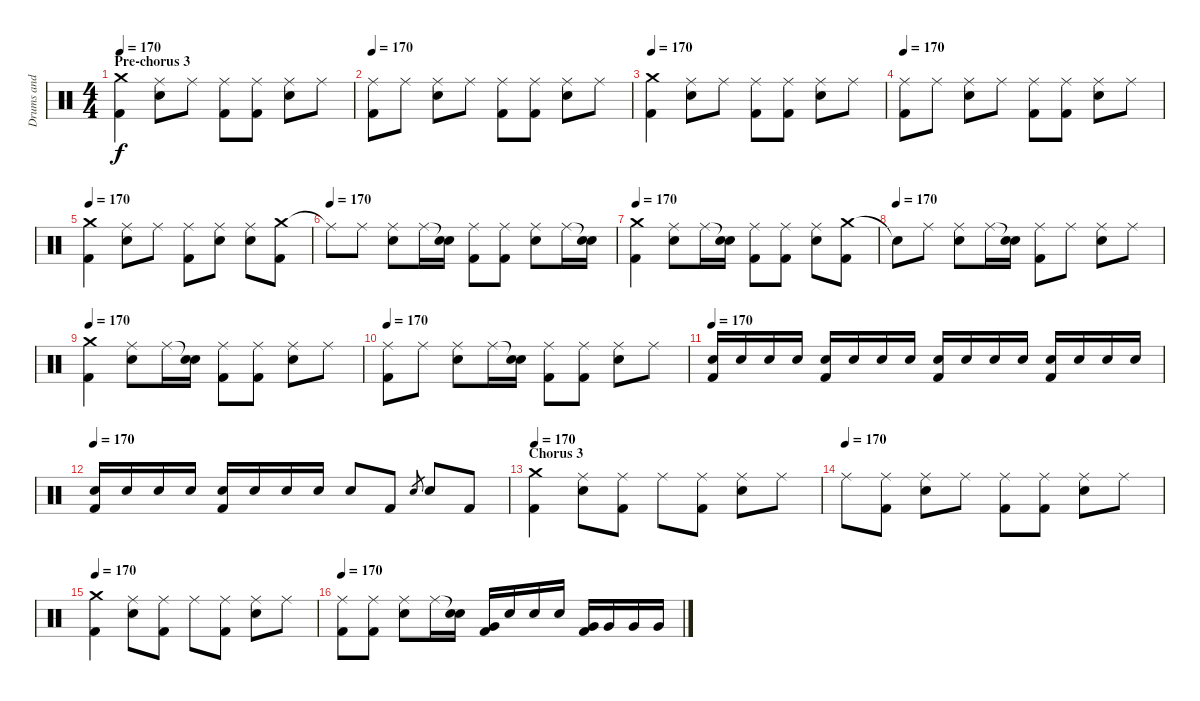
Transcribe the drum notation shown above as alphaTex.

\track ("Drums and Percussion" "Drums and ") {instrument percussion}
\staff {score}
\articulation defaults
\ts (4 4)
\section ("" "Pre-chorus 3")
\tempo 170
\clef neutral
\ks c
("Crash medium (hit)" "Kick (hit) 2").4{dy f} ("Ride (middle)" "Electric Snare (hit)").8 "Ride (middle)".8 ("Ride (middle)" "Kick (hit) 2").8 ("Ride (middle)" "Kick (hit) 2").8 ("Ride (middle)" "Electric Snare (hit)").8 "Ride (middle)".8 |
\tempo 170
("Ride (middle)" "Kick (hit) 2").8 "Ride (middle)".8 ("Ride (middle)" "Electric Snare (hit)").8 "Ride (middle)".8 ("Ride (middle)" "Kick (hit) 2").8 ("Ride (middle)" "Kick (hit) 2").8 ("Ride (middle)" "Electric Snare (hit)").8 "Ride (middle)".8 |
\tempo 170
("Crash medium (hit)" "Kick (hit) 2").4 ("Ride (middle)" "Electric Snare (hit)").8 "Ride (middle)".8 ("Ride (middle)" "Kick (hit) 2").8 ("Ride (middle)" "Kick (hit) 2").8 ("Ride (middle)" "Electric Snare (hit)").8 "Ride (middle)".8 |
\tempo 170
("Ride (middle)" "Kick (hit) 2").8 "Ride (middle)".8 ("Ride (middle)" "Electric Snare (hit)").8 "Ride (middle)".8 ("Ride (middle)" "Kick (hit) 2").8 ("Ride (middle)" "Kick (hit) 2").8 ("Ride (middle)" "Electric Snare (hit)").8 "Ride (middle)".8 |
\tempo 170
("Crash medium (hit)" "Kick (hit) 2").4 ("Ride (middle)" "Electric Snare (hit)").8 "Ride (middle)".8 ("Ride (middle)" "Kick (hit) 2").8 ("Ride (middle)" "Electric Snare (hit)").8 ("Ride (middle)" "Electric Snare (hit)").8 ("Crash medium (hit)" "Kick (hit) 2").8 |
\tempo (170)
"Ride (middle)"{t}.8 "Ride (middle)".8 ("Ride (middle)" "Electric Snare (hit)").8 "Ride (middle)".16 ("Snare (hit)"{t} "Electric Snare (hit)").16 ("Ride (middle)" "Kick (hit) 2").8 ("Ride (middle)" "Kick (hit) 2").8 ("Ride (middle)" "Electric Snare (hit)").8 "Ride (middle)".16 ("Snare (hit)"{t} "Electric Snare (hit)").16 |
\tempo 170
("Crash medium (hit)" "Kick (hit) 2").4 ("Ride (middle)" "Electric Snare (hit)").8 "Ride (middle)".16 ("Snare (hit)"{t} "Electric Snare (hit)").16 ("Ride (middle)" "Kick (hit) 2").8 ("Ride (middle)" "Kick (hit) 2").8 ("Ride (middle)" "Electric Snare (hit)").8 ("Crash medium (hit)" "Kick (hit) 2").8 |
\tempo (170)
"Snare (hit)"{t}.8 "Ride (middle)".8 ("Ride (middle)" "Electric Snare (hit)").8 "Ride (middle)".16 ("Snare (hit)"{t} "Electric Snare (hit)").16 ("Ride (middle)" "Kick (hit) 2").8 "Ride (middle)".8 ("Ride (middle)" "Electric Snare (hit)").8 "Ride (middle)".8 |
\tempo 170
("Crash medium (hit)" "Kick (hit) 2").4 ("Ride (middle)" "Electric Snare (hit)").8 "Ride (middle)".16 ("Snare (hit)"{t} "Electric Snare (hit)").16 ("Ride (middle)" "Kick (hit) 2").8 ("Ride (middle)" "Kick (hit) 2").8 ("Ride (middle)" "Electric Snare (hit)").8 "Ride (middle)".8 |
\tempo 170
("Ride (middle)" "Kick (hit) 2").8 "Ride (middle)".8 ("Ride (middle)" "Electric Snare (hit)").8 "Ride (middle)".16 ("Snare (hit)"{t} "Electric Snare (hit)").16 ("Ride (middle)" "Kick (hit) 2").8 ("Ride (middle)" "Kick (hit) 2").8 ("Ride (middle)" "Electric Snare (hit)").8 "Ride (middle)".8 |
\tempo 170
("Electric Snare (hit)" "Kick (hit) 2").16 "Electric Snare (hit)".16 "Electric Snare (hit)".16 "Electric Snare (hit)".16 ("Electric Snare (hit)" "Kick (hit) 2").16 "Electric Snare (hit)".16 "Electric Snare (hit)".16 "Electric Snare (hit)".16 ("Electric Snare (hit)" "Kick (hit) 2").16 "Electric Snare (hit)".16 "Electric Snare (hit)".16 "Electric Snare (hit)".16 ("Electric Snare (hit)" "Kick (hit) 2").16 "Electric Snare (hit)".16 "Electric Snare (hit)".16 "Electric Snare (hit)".16 |
\tempo 170
("Electric Snare (hit)" "Kick (hit) 2").16 "Electric Snare (hit)".16 "Electric Snare (hit)".16 "Electric Snare (hit)".16 ("Electric Snare (hit)" "Kick (hit) 2").16 "Electric Snare (hit)".16 "Electric Snare (hit)".16 "Electric Snare (hit)".16 "Electric Snare (hit)".8 "Kick (hit) 2".8 "Electric Snare (hit)".8{gr} "Electric Snare (hit)".8 "Kick (hit) 2".8 |
\section ("" "Chorus 3")
\tempo 170
("Crash medium (hit)" "Kick (hit) 2").4 ("Ride (middle)" "Electric Snare (hit)").8 ("Ride (middle)" "Kick (hit) 2").8 "Ride (middle)".8 ("Ride (middle)" "Kick (hit) 2").8 ("Ride (middle)" "Electric Snare (hit)").8 "Ride (middle)".8 |
\tempo (170)
"Ride (middle)".8 ("Ride (middle)" "Kick (hit) 2").8 ("Ride (middle)" "Electric Snare (hit)").8 "Ride (middle)".8 ("Ride (middle)" "Kick (hit) 2").8 ("Ride (middle)" "Kick (hit) 2").8 ("Ride (middle)" "Electric Snare (hit)").8 "Ride (middle)".8 |
\tempo 170
("Crash medium (hit)" "Kick (hit) 2").4 ("Ride (middle)" "Electric Snare (hit)").8 ("Ride (middle)" "Kick (hit) 2").8 "Ride (middle)".8 ("Ride (middle)" "Kick (hit) 2").8 ("Ride (middle)" "Electric Snare (hit)").8 "Ride (middle)".8 |
\tempo 170
("Ride (middle)" "Kick (hit) 2").8 ("Ride (middle)" "Kick (hit) 2").8 ("Ride (middle)" "Electric Snare (hit)").8 "Ride (middle)".16 ("Snare (hit)"{t} "Electric Snare (hit)").16 ("Very Low Tom (hit)" "Kick (hit) 2").16 "Electric Snare (hit)".16 "Electric Snare (hit)".16 "Electric Snare (hit)".16 ("Very Low Tom (hit)" "Kick (hit) 2").16 "Very Low Tom (hit)".16 "Very Low Tom (hit)".16 "Very Low Tom (hit)".16
